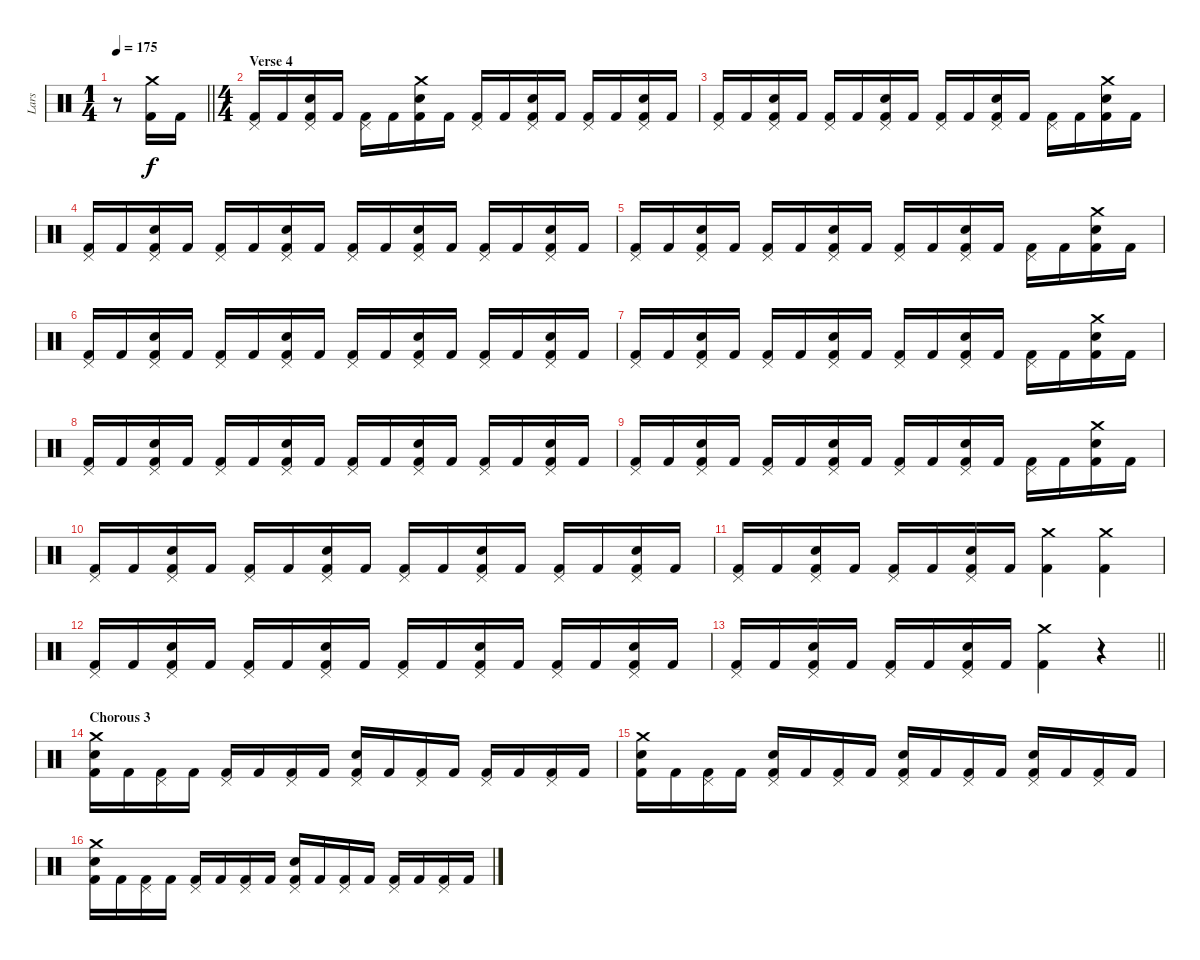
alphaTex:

\track ("Lars" "Lars") {instrument percussion}
\staff {score}
\articulation defaults
\ts (1 4)
\tempo 175
\clef neutral
\barLineRight lightlight
\ks c
r.8{dy f} ("Crash medium (hit)" "Kick (hit) 2").16 "Kick (hit) 2".16 |
\ts (4 4)
\section ("" "Verse 4")
("Pedal Hi-Hat (hit)" "Kick (hit) 2").16 "Kick (hit) 2".16 ("Pedal Hi-Hat (hit)" "Electric Snare (hit)" "Kick (hit) 2").16 "Kick (hit) 2".16 ("Pedal Hi-Hat (hit)" "Kick (hit) 2").16 "Kick (hit) 2".16 ("Crash medium (hit)" "Electric Snare (hit)" "Kick (hit) 2").16 "Kick (hit) 2".16 ("Pedal Hi-Hat (hit)" "Kick (hit) 2").16 "Kick (hit) 2".16 ("Pedal Hi-Hat (hit)" "Electric Snare (hit)" "Kick (hit) 2").16 "Kick (hit) 2".16 ("Pedal Hi-Hat (hit)" "Kick (hit) 2").16 "Kick (hit) 2".16 ("Pedal Hi-Hat (hit)" "Electric Snare (hit)" "Kick (hit) 2").16 "Kick (hit) 2".16 |
("Pedal Hi-Hat (hit)" "Kick (hit) 2").16 "Kick (hit) 2".16 ("Pedal Hi-Hat (hit)" "Electric Snare (hit)" "Kick (hit) 2").16 "Kick (hit) 2".16 ("Pedal Hi-Hat (hit)" "Kick (hit) 2").16 "Kick (hit) 2".16 ("Pedal Hi-Hat (hit)" "Electric Snare (hit)" "Kick (hit) 2").16 "Kick (hit) 2".16 ("Pedal Hi-Hat (hit)" "Kick (hit) 2").16 "Kick (hit) 2".16 ("Pedal Hi-Hat (hit)" "Electric Snare (hit)" "Kick (hit) 2").16 "Kick (hit) 2".16 ("Pedal Hi-Hat (hit)" "Kick (hit) 2").16 "Kick (hit) 2".16 ("Crash medium (hit)" "Electric Snare (hit)" "Kick (hit) 2").16 "Kick (hit) 2".16 |
("Pedal Hi-Hat (hit)" "Kick (hit) 2").16 "Kick (hit) 2".16 ("Pedal Hi-Hat (hit)" "Electric Snare (hit)" "Kick (hit) 2").16 "Kick (hit) 2".16 ("Pedal Hi-Hat (hit)" "Kick (hit) 2").16 "Kick (hit) 2".16 ("Pedal Hi-Hat (hit)" "Electric Snare (hit)" "Kick (hit) 2").16 "Kick (hit) 2".16 ("Pedal Hi-Hat (hit)" "Kick (hit) 2").16 "Kick (hit) 2".16 ("Pedal Hi-Hat (hit)" "Electric Snare (hit)" "Kick (hit) 2").16 "Kick (hit) 2".16 ("Pedal Hi-Hat (hit)" "Kick (hit) 2").16 "Kick (hit) 2".16 ("Pedal Hi-Hat (hit)" "Electric Snare (hit)" "Kick (hit) 2").16 "Kick (hit) 2".16 |
("Pedal Hi-Hat (hit)" "Kick (hit) 2").16 "Kick (hit) 2".16 ("Pedal Hi-Hat (hit)" "Electric Snare (hit)" "Kick (hit) 2").16 "Kick (hit) 2".16 ("Pedal Hi-Hat (hit)" "Kick (hit) 2").16 "Kick (hit) 2".16 ("Pedal Hi-Hat (hit)" "Electric Snare (hit)" "Kick (hit) 2").16 "Kick (hit) 2".16 ("Pedal Hi-Hat (hit)" "Kick (hit) 2").16 "Kick (hit) 2".16 ("Pedal Hi-Hat (hit)" "Electric Snare (hit)" "Kick (hit) 2").16 "Kick (hit) 2".16 ("Pedal Hi-Hat (hit)" "Kick (hit) 2").16 "Kick (hit) 2".16 ("Crash medium (hit)" "Electric Snare (hit)" "Kick (hit) 2").16 "Kick (hit) 2".16 |
("Pedal Hi-Hat (hit)" "Kick (hit) 2").16 "Kick (hit) 2".16 ("Pedal Hi-Hat (hit)" "Electric Snare (hit)" "Kick (hit) 2").16 "Kick (hit) 2".16 ("Pedal Hi-Hat (hit)" "Kick (hit) 2").16 "Kick (hit) 2".16 ("Pedal Hi-Hat (hit)" "Electric Snare (hit)" "Kick (hit) 2").16 "Kick (hit) 2".16 ("Pedal Hi-Hat (hit)" "Kick (hit) 2").16 "Kick (hit) 2".16 ("Pedal Hi-Hat (hit)" "Electric Snare (hit)" "Kick (hit) 2").16 "Kick (hit) 2".16 ("Pedal Hi-Hat (hit)" "Kick (hit) 2").16 "Kick (hit) 2".16 ("Pedal Hi-Hat (hit)" "Electric Snare (hit)" "Kick (hit) 2").16 "Kick (hit) 2".16 |
("Pedal Hi-Hat (hit)" "Kick (hit) 2").16 "Kick (hit) 2".16 ("Pedal Hi-Hat (hit)" "Electric Snare (hit)" "Kick (hit) 2").16 "Kick (hit) 2".16 ("Pedal Hi-Hat (hit)" "Kick (hit) 2").16 "Kick (hit) 2".16 ("Pedal Hi-Hat (hit)" "Electric Snare (hit)" "Kick (hit) 2").16 "Kick (hit) 2".16 ("Pedal Hi-Hat (hit)" "Kick (hit) 2").16 "Kick (hit) 2".16 ("Pedal Hi-Hat (hit)" "Electric Snare (hit)" "Kick (hit) 2").16 "Kick (hit) 2".16 ("Pedal Hi-Hat (hit)" "Kick (hit) 2").16 "Kick (hit) 2".16 ("Crash medium (hit)" "Electric Snare (hit)" "Kick (hit) 2").16 "Kick (hit) 2".16 |
("Pedal Hi-Hat (hit)" "Kick (hit) 2").16 "Kick (hit) 2".16 ("Pedal Hi-Hat (hit)" "Electric Snare (hit)" "Kick (hit) 2").16 "Kick (hit) 2".16 ("Pedal Hi-Hat (hit)" "Kick (hit) 2").16 "Kick (hit) 2".16 ("Pedal Hi-Hat (hit)" "Electric Snare (hit)" "Kick (hit) 2").16 "Kick (hit) 2".16 ("Pedal Hi-Hat (hit)" "Kick (hit) 2").16 "Kick (hit) 2".16 ("Pedal Hi-Hat (hit)" "Electric Snare (hit)" "Kick (hit) 2").16 "Kick (hit) 2".16 ("Pedal Hi-Hat (hit)" "Kick (hit) 2").16 "Kick (hit) 2".16 ("Pedal Hi-Hat (hit)" "Electric Snare (hit)" "Kick (hit) 2").16 "Kick (hit) 2".16 |
("Pedal Hi-Hat (hit)" "Kick (hit) 2").16 "Kick (hit) 2".16 ("Pedal Hi-Hat (hit)" "Electric Snare (hit)" "Kick (hit) 2").16 "Kick (hit) 2".16 ("Pedal Hi-Hat (hit)" "Kick (hit) 2").16 "Kick (hit) 2".16 ("Pedal Hi-Hat (hit)" "Electric Snare (hit)" "Kick (hit) 2").16 "Kick (hit) 2".16 ("Pedal Hi-Hat (hit)" "Kick (hit) 2").16 "Kick (hit) 2".16 ("Pedal Hi-Hat (hit)" "Electric Snare (hit)" "Kick (hit) 2").16 "Kick (hit) 2".16 ("Pedal Hi-Hat (hit)" "Kick (hit) 2").16 "Kick (hit) 2".16 ("Crash medium (hit)" "Electric Snare (hit)" "Kick (hit) 2").16 "Kick (hit) 2".16 |
("Pedal Hi-Hat (hit)" "Kick (hit) 2").16 "Kick (hit) 2".16 ("Pedal Hi-Hat (hit)" "Electric Snare (hit)" "Kick (hit) 2").16 "Kick (hit) 2".16 ("Pedal Hi-Hat (hit)" "Kick (hit) 2").16 "Kick (hit) 2".16 ("Pedal Hi-Hat (hit)" "Electric Snare (hit)" "Kick (hit) 2").16 "Kick (hit) 2".16 ("Pedal Hi-Hat (hit)" "Kick (hit) 2").16 "Kick (hit) 2".16 ("Pedal Hi-Hat (hit)" "Electric Snare (hit)" "Kick (hit) 2").16 "Kick (hit) 2".16 ("Pedal Hi-Hat (hit)" "Kick (hit) 2").16 "Kick (hit) 2".16 ("Pedal Hi-Hat (hit)" "Electric Snare (hit)" "Kick (hit) 2").16 "Kick (hit) 2".16 |
("Pedal Hi-Hat (hit)" "Kick (hit) 2").16 "Kick (hit) 2".16 ("Pedal Hi-Hat (hit)" "Electric Snare (hit)" "Kick (hit) 2").16 "Kick (hit) 2".16 ("Pedal Hi-Hat (hit)" "Kick (hit) 2").16 "Kick (hit) 2".16 ("Pedal Hi-Hat (hit)" "Electric Snare (hit)" "Kick (hit) 2").16 "Kick (hit) 2".16 ("Crash medium (hit)" "Kick (hit) 2").4 ("Crash medium (hit)" "Kick (hit) 2").4 |
("Pedal Hi-Hat (hit)" "Kick (hit) 2").16 "Kick (hit) 2".16 ("Pedal Hi-Hat (hit)" "Electric Snare (hit)" "Kick (hit) 2").16 "Kick (hit) 2".16 ("Pedal Hi-Hat (hit)" "Kick (hit) 2").16 "Kick (hit) 2".16 ("Pedal Hi-Hat (hit)" "Electric Snare (hit)" "Kick (hit) 2").16 "Kick (hit) 2".16 ("Pedal Hi-Hat (hit)" "Kick (hit) 2").16 "Kick (hit) 2".16 ("Pedal Hi-Hat (hit)" "Electric Snare (hit)" "Kick (hit) 2").16 "Kick (hit) 2".16 ("Pedal Hi-Hat (hit)" "Kick (hit) 2").16 "Kick (hit) 2".16 ("Pedal Hi-Hat (hit)" "Electric Snare (hit)" "Kick (hit) 2").16 "Kick (hit) 2".16 |
\barLineRight lightlight
("Pedal Hi-Hat (hit)" "Kick (hit) 2").16 "Kick (hit) 2".16 ("Pedal Hi-Hat (hit)" "Electric Snare (hit)" "Kick (hit) 2").16 "Kick (hit) 2".16 ("Pedal Hi-Hat (hit)" "Kick (hit) 2").16 "Kick (hit) 2".16 ("Pedal Hi-Hat (hit)" "Electric Snare (hit)" "Kick (hit) 2").16 "Kick (hit) 2".16 ("Crash medium (hit)" "Kick (hit) 2").4 r.4 |
\section ("" "Chorous 3")
("Crash medium (hit)" "Electric Snare (hit)" "Kick (hit) 2").16 "Kick (hit) 2".16 ("Pedal Hi-Hat (hit)" "Kick (hit) 2").16 "Kick (hit) 2".16 ("Pedal Hi-Hat (hit)" "Kick (hit) 2").16 "Kick (hit) 2".16 ("Pedal Hi-Hat (hit)" "Kick (hit) 2").16 "Kick (hit) 2".16 ("Pedal Hi-Hat (hit)" "Electric Snare (hit)" "Kick (hit) 2").16 "Kick (hit) 2".16 ("Pedal Hi-Hat (hit)" "Kick (hit) 2").16 "Kick (hit) 2".16 ("Pedal Hi-Hat (hit)" "Kick (hit) 2").16 "Kick (hit) 2".16 ("Pedal Hi-Hat (hit)" "Kick (hit) 2").16 "Kick (hit) 2".16 |
("Crash medium (hit)" "Electric Snare (hit)" "Kick (hit) 2").16 "Kick (hit) 2".16 ("Pedal Hi-Hat (hit)" "Kick (hit) 2").16 "Kick (hit) 2".16 ("Pedal Hi-Hat (hit)" "Electric Snare (hit)" "Kick (hit) 2").16 "Kick (hit) 2".16 ("Pedal Hi-Hat (hit)" "Kick (hit) 2").16 "Kick (hit) 2".16 ("Pedal Hi-Hat (hit)" "Electric Snare (hit)" "Kick (hit) 2").16 "Kick (hit) 2".16 ("Pedal Hi-Hat (hit)" "Kick (hit) 2").16 "Kick (hit) 2".16 ("Pedal Hi-Hat (hit)" "Electric Snare (hit)" "Kick (hit) 2").16 "Kick (hit) 2".16 ("Pedal Hi-Hat (hit)" "Kick (hit) 2").16 "Kick (hit) 2".16 |
("Crash medium (hit)" "Electric Snare (hit)" "Kick (hit) 2").16 "Kick (hit) 2".16 ("Pedal Hi-Hat (hit)" "Kick (hit) 2").16 "Kick (hit) 2".16 ("Pedal Hi-Hat (hit)" "Kick (hit) 2").16 "Kick (hit) 2".16 ("Pedal Hi-Hat (hit)" "Kick (hit) 2").16 "Kick (hit) 2".16 ("Pedal Hi-Hat (hit)" "Electric Snare (hit)" "Kick (hit) 2").16 "Kick (hit) 2".16 ("Pedal Hi-Hat (hit)" "Kick (hit) 2").16 "Kick (hit) 2".16 ("Pedal Hi-Hat (hit)" "Kick (hit) 2").16 "Kick (hit) 2".16 ("Pedal Hi-Hat (hit)" "Kick (hit) 2").16 "Kick (hit) 2".16
